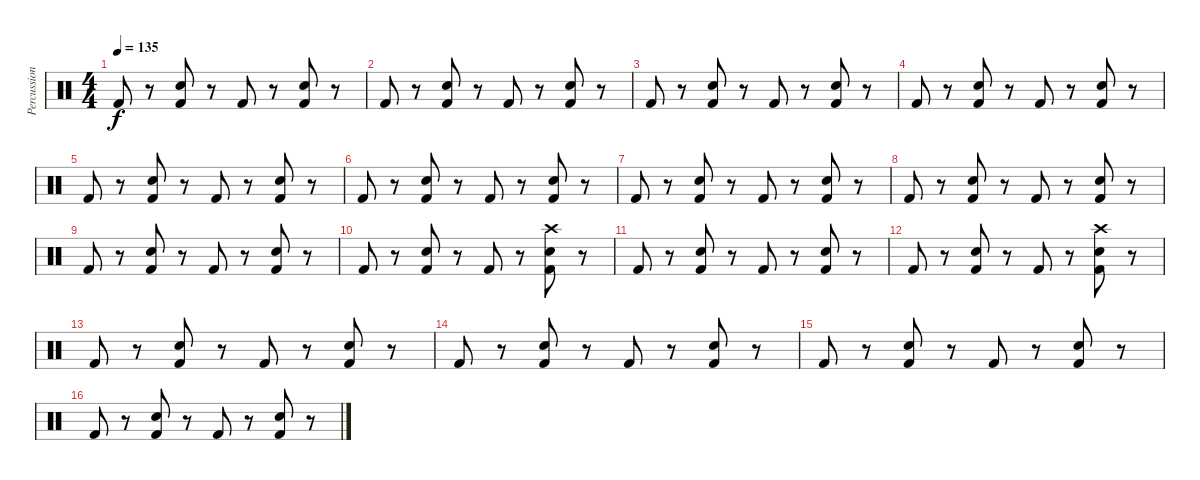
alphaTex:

\track ("Percussions" "Percussion") {instrument percussion}
\staff {score}
\articulation defaults
\ts (4 4)
\tempo 135
\clef neutral
\ks c "Kick (hit) 2".8{dy f}
r.8 ("Snare (hit) 2" "Kick (hit) 2").8 r.8 "Kick (hit) 2".8 r.8 ("Snare (hit) 2" "Kick (hit) 2").8 r.8 |
"Kick (hit) 2".8 r.8 ("Snare (hit) 2" "Kick (hit) 2").8 r.8 "Kick (hit) 2".8 r.8 ("Snare (hit) 2" "Kick (hit) 2").8 r.8 |
"Kick (hit) 2".8 r.8 ("Snare (hit) 2" "Kick (hit) 2").8 r.8 "Kick (hit) 2".8 r.8 ("Snare (hit) 2" "Kick (hit) 2").8 r.8 |
"Kick (hit) 2".8 r.8 ("Snare (hit) 2" "Kick (hit) 2").8 r.8 "Kick (hit) 2".8 r.8 ("Snare (hit) 2" "Kick (hit) 2").8 r.8 |
"Kick (hit) 2".8 r.8 ("Snare (hit) 2" "Kick (hit) 2").8 r.8 "Kick (hit) 2".8 r.8 ("Snare (hit) 2" "Kick (hit) 2").8 r.8 |
"Kick (hit) 2".8 r.8 ("Snare (hit) 2" "Kick (hit) 2").8 r.8 "Kick (hit) 2".8 r.8 ("Snare (hit) 2" "Kick (hit) 2").8 r.8 |
"Kick (hit) 2".8 r.8 ("Snare (hit) 2" "Kick (hit) 2").8 r.8 "Kick (hit) 2".8 r.8 ("Snare (hit) 2" "Kick (hit) 2").8 r.8 |
"Kick (hit) 2".8 r.8 ("Snare (hit) 2" "Kick (hit) 2").8 r.8 "Kick (hit) 2".8 r.8 ("Snare (hit) 2" "Kick (hit) 2").8 r.8 |
"Kick (hit) 2".8 r.8 ("Snare (hit) 2" "Kick (hit) 2").8 r.8 "Kick (hit) 2".8 r.8 ("Snare (hit) 2" "Kick (hit) 2").8 r.8 |
"Kick (hit) 2".8 r.8 ("Snare (hit) 2" "Kick (hit) 2").8 r.8 "Kick (hit) 2".8 r.8 ("Crash high (hit)" "Snare (hit) 2" "Kick (hit) 2").8 r.8 |
"Kick (hit) 2".8 r.8 ("Snare (hit) 2" "Kick (hit) 2").8 r.8 "Kick (hit) 2".8 r.8 ("Snare (hit) 2" "Kick (hit) 2").8 r.8 |
"Kick (hit) 2".8 r.8 ("Snare (hit) 2" "Kick (hit) 2").8 r.8 "Kick (hit) 2".8 r.8 ("Crash high (hit)" "Snare (hit) 2" "Kick (hit) 2").8 r.8 |
"Kick (hit) 2".8 r.8 ("Snare (hit) 2" "Kick (hit) 2").8 r.8 "Kick (hit) 2".8 r.8 ("Snare (hit) 2" "Kick (hit) 2").8 r.8 |
"Kick (hit) 2".8 r.8 ("Snare (hit) 2" "Kick (hit) 2").8 r.8 "Kick (hit) 2".8 r.8 ("Snare (hit) 2" "Kick (hit) 2").8 r.8 |
"Kick (hit) 2".8 r.8 ("Snare (hit) 2" "Kick (hit) 2").8 r.8 "Kick (hit) 2".8 r.8 ("Snare (hit) 2" "Kick (hit) 2").8 r.8 |
"Kick (hit) 2".8 r.8 ("Snare (hit) 2" "Kick (hit) 2").8 r.8 "Kick (hit) 2".8 r.8 ("Snare (hit) 2" "Kick (hit) 2").8 r.8
